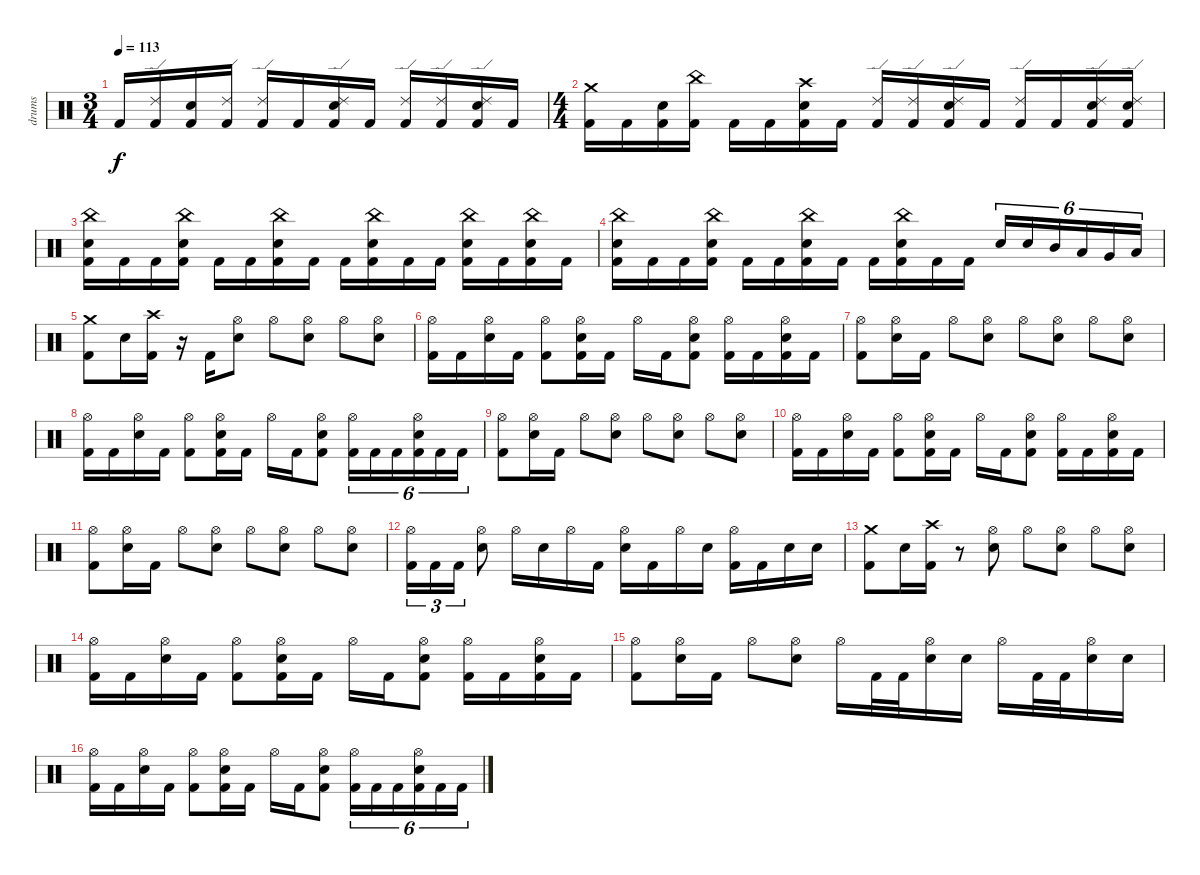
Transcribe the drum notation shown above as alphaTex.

\track ("drums" "drums") {instrument percussion}
\staff {score}
\articulation defaults
\ts (3 4)
\tempo 113
\clef neutral
\ks c "Kick (hit) 2".16{dy f}
("Ride (edge) 2" "Kick (hit) 2").16 ("Electric Snare (hit)" "Kick (hit) 2").16 ("Ride (edge) 2" "Kick (hit) 2").16 ("Ride (edge) 2" "Kick (hit) 2").16 "Kick (hit) 2".16 ("Ride (edge) 2" "Electric Snare (hit)" "Kick (hit) 2").16 "Kick (hit) 2".16 ("Ride (edge) 2" "Kick (hit) 2").16 ("Ride (edge) 2" "Kick (hit) 2").16 ("Ride (edge) 2" "Electric Snare (hit)" "Kick (hit) 2").16 "Kick (hit) 2".16 |
\ts (4 4)
("Crash medium (hit)" "Kick (hit) 2").16 "Kick (hit) 2".16 ("Electric Snare (hit)" "Kick (hit) 2").16 ("China (hit)" "Kick (hit) 2").16 "Kick (hit) 2".16 "Kick (hit) 2".16 ("Crash high (hit)" "Electric Snare (hit)" "Kick (hit) 2").16 "Kick (hit) 2".16 ("Ride (edge) 2" "Kick (hit) 2").16 ("Ride (edge) 2" "Kick (hit) 2").16 ("Ride (edge) 2" "Electric Snare (hit)" "Kick (hit) 2").16 "Kick (hit) 2".16 ("Ride (edge) 2" "Kick (hit) 2").16 "Kick (hit) 2".16 ("Ride (edge) 2" "Electric Snare (hit)" "Kick (hit) 2").16 ("Ride (edge) 2" "Electric Snare (hit)" "Kick (hit) 2").16 |
("China (hit)" "Kick (hit) 2" "Electric Snare (hit)").16 "Kick (hit) 2".16 "Kick (hit) 2".16 ("China (hit)" "Electric Snare (hit)" "Kick (hit) 2").16 "Kick (hit) 2".16 "Kick (hit) 2".16 ("China (hit)" "Electric Snare (hit)" "Kick (hit) 2").16 "Kick (hit) 2".16 "Kick (hit) 2".16 ("China (hit)" "Electric Snare (hit)" "Kick (hit) 2").16 "Kick (hit) 2".16 "Kick (hit) 2".16 ("China (hit)" "Electric Snare (hit)" "Kick (hit) 2").16 "Kick (hit) 2".16 ("China (hit)" "Electric Snare (hit)" "Kick (hit) 2").16 "Kick (hit) 2".16 |
("China (hit)" "Kick (hit) 2" "Electric Snare (hit)").16 "Kick (hit) 2".16 "Kick (hit) 2".16 ("China (hit)" "Electric Snare (hit)" "Kick (hit) 2").16 "Kick (hit) 2".16 "Kick (hit) 2".16 ("China (hit)" "Electric Snare (hit)" "Kick (hit) 2").16 "Kick (hit) 2".16 "Kick (hit) 2".16 ("China (hit)" "Electric Snare (hit)" "Kick (hit) 2").16 "Kick (hit) 2".16 "Kick (hit) 2".16 "Electric Snare (hit)".16{tu (6 4)} "Electric Snare (hit)".16{tu (6 4)} "Mid Tom (hit)".16{tu (6 4)} "Low Tom (hit)".16{tu (6 4)} "Very Low Tom (hit)".16{tu (6 4)} "Low Floor Tom (hit)".16{tu (6 4)} |
("Crash medium (hit)" "Kick (hit) 2").8 "Electric Snare (hit)".16 ("Crash high (hit)" "Kick (hit) 2").16 r.16 "Kick (hit) 2".16 ("Hi-Hat (open)" "Electric Snare (hit)").8 "Hi-Hat (open)".8 ("Hi-Hat (open)" "Electric Snare (hit)").8 "Hi-Hat (open)".8 ("Hi-Hat (open)" "Electric Snare (hit)").8 |
("Hi-Hat (open)" "Kick (hit) 2").16 "Kick (hit) 2".16 ("Hi-Hat (open)" "Electric Snare (hit)").16 "Kick (hit) 2".16 ("Hi-Hat (open)" "Kick (hit) 2").8 ("Hi-Hat (open)" "Electric Snare (hit)" "Kick (hit) 2").16 "Kick (hit) 2".16 "Hi-Hat (open)".16 "Kick (hit) 2".16 ("Hi-Hat (open)" "Electric Snare (hit)" "Kick (hit) 2").8 ("Hi-Hat (open)" "Kick (hit) 2").16 "Kick (hit) 2".16 ("Hi-Hat (open)" "Electric Snare (hit)" "Kick (hit) 2").16 "Kick (hit) 2".16 |
("Hi-Hat (open)" "Kick (hit) 2").8 ("Hi-Hat (open)" "Electric Snare (hit)").16 "Kick (hit) 2".16 "Hi-Hat (open)".8 ("Hi-Hat (open)" "Electric Snare (hit)").8 "Hi-Hat (open)".8 ("Hi-Hat (open)" "Electric Snare (hit)").8 "Hi-Hat (open)".8 ("Hi-Hat (open)" "Electric Snare (hit)").8 |
("Hi-Hat (open)" "Kick (hit) 2").16 "Kick (hit) 2".16 ("Hi-Hat (open)" "Electric Snare (hit)").16 "Kick (hit) 2".16 ("Hi-Hat (open)" "Kick (hit) 2").8 ("Hi-Hat (open)" "Electric Snare (hit)" "Kick (hit) 2").16 "Kick (hit) 2".16 "Hi-Hat (open)".16 "Kick (hit) 2".16 ("Hi-Hat (open)" "Electric Snare (hit)" "Kick (hit) 2").8 ("Kick (hit) 2" "Hi-Hat (open)").16{tu (6 4)} "Kick (hit) 2".16{tu (6 4)} "Kick (hit) 2".16{tu (6 4)} ("Kick (hit) 2" "Hi-Hat (open)" "Electric Snare (hit)").16{tu (6 4)} "Kick (hit) 2".16{tu (6 4)} "Kick (hit) 2".16{tu (6 4)} |
("Hi-Hat (open)" "Kick (hit) 2").8 ("Hi-Hat (open)" "Electric Snare (hit)").16 "Kick (hit) 2".16 "Hi-Hat (open)".8 ("Hi-Hat (open)" "Electric Snare (hit)").8 "Hi-Hat (open)".8 ("Hi-Hat (open)" "Electric Snare (hit)").8 "Hi-Hat (open)".8 ("Hi-Hat (open)" "Electric Snare (hit)").8 |
("Hi-Hat (open)" "Kick (hit) 2").16 "Kick (hit) 2".16 ("Hi-Hat (open)" "Electric Snare (hit)").16 "Kick (hit) 2".16 ("Hi-Hat (open)" "Kick (hit) 2").8 ("Hi-Hat (open)" "Electric Snare (hit)" "Kick (hit) 2").16 "Kick (hit) 2".16 "Hi-Hat (open)".16 "Kick (hit) 2".16 ("Hi-Hat (open)" "Electric Snare (hit)" "Kick (hit) 2").8 ("Hi-Hat (open)" "Kick (hit) 2").16 "Kick (hit) 2".16 ("Hi-Hat (open)" "Electric Snare (hit)" "Kick (hit) 2").16 "Kick (hit) 2".16 |
("Hi-Hat (open)" "Kick (hit) 2").8 ("Hi-Hat (open)" "Electric Snare (hit)").16 "Kick (hit) 2".16 "Hi-Hat (open)".8 ("Hi-Hat (open)" "Electric Snare (hit)").8 "Hi-Hat (open)".8 ("Hi-Hat (open)" "Electric Snare (hit)").8 "Hi-Hat (open)".8 ("Hi-Hat (open)" "Electric Snare (hit)").8 |
("Kick (hit) 2" "Hi-Hat (open)").16{tu (3 2)} "Kick (hit) 2".16{tu (3 2)} "Kick (hit) 2".16{tu (3 2)} ("Electric Snare (hit)" "Hi-Hat (open)").8 "Hi-Hat (open)".16 "Electric Snare (hit)".16 "Hi-Hat (open)".16 "Kick (hit) 2".16 ("Electric Snare (hit)" "Hi-Hat (open)").16 "Kick (hit) 2".16 "Hi-Hat (open)".16 "Electric Snare (hit)".16 ("Kick (hit) 2" "Hi-Hat (open)").16 "Kick (hit) 2".16 "Electric Snare (hit)".16 "Electric Snare (hit)".16 |
("Crash medium (hit)" "Kick (hit) 2").8 "Electric Snare (hit)".16 ("Crash high (hit)" "Kick (hit) 2").16 r.8 ("Hi-Hat (open)" "Electric Snare (hit)").8 "Hi-Hat (open)".8 ("Hi-Hat (open)" "Electric Snare (hit)").8 "Hi-Hat (open)".8 ("Hi-Hat (open)" "Electric Snare (hit)").8 |
("Hi-Hat (open)" "Kick (hit) 2").16 "Kick (hit) 2".16 ("Hi-Hat (open)" "Electric Snare (hit)").16 "Kick (hit) 2".16 ("Hi-Hat (open)" "Kick (hit) 2").8 ("Hi-Hat (open)" "Electric Snare (hit)" "Kick (hit) 2").16 "Kick (hit) 2".16 "Hi-Hat (open)".16 "Kick (hit) 2".16 ("Hi-Hat (open)" "Electric Snare (hit)" "Kick (hit) 2").8 ("Hi-Hat (open)" "Kick (hit) 2").16 "Kick (hit) 2".16 ("Hi-Hat (open)" "Electric Snare (hit)" "Kick (hit) 2").16 "Kick (hit) 2".16 |
("Hi-Hat (open)" "Kick (hit) 2").8 ("Hi-Hat (open)" "Electric Snare (hit)").16 "Kick (hit) 2".16 "Hi-Hat (open)".8 ("Hi-Hat (open)" "Electric Snare (hit)").8 "Hi-Hat (open)".16 "Kick (hit) 2".32 "Kick (hit) 2".32 ("Hi-Hat (open)" "Electric Snare (hit)").16 "Electric Snare (hit)".16 "Hi-Hat (open)".16 "Kick (hit) 2".32 "Kick (hit) 2".32 ("Hi-Hat (open)" "Electric Snare (hit)").16 "Electric Snare (hit)".16 |
("Hi-Hat (open)" "Kick (hit) 2").16 "Kick (hit) 2".16 ("Hi-Hat (open)" "Electric Snare (hit)").16 "Kick (hit) 2".16 ("Hi-Hat (open)" "Kick (hit) 2").8 ("Hi-Hat (open)" "Electric Snare (hit)" "Kick (hit) 2").16 "Kick (hit) 2".16 "Hi-Hat (open)".16 "Kick (hit) 2".16 ("Hi-Hat (open)" "Electric Snare (hit)" "Kick (hit) 2").8 ("Kick (hit) 2" "Hi-Hat (open)").16{tu (6 4)} "Kick (hit) 2".16{tu (6 4)} "Kick (hit) 2".16{tu (6 4)} ("Kick (hit) 2" "Hi-Hat (open)" "Electric Snare (hit)").16{tu (6 4)} "Kick (hit) 2".16{tu (6 4)} "Kick (hit) 2".16{tu (6 4)}
